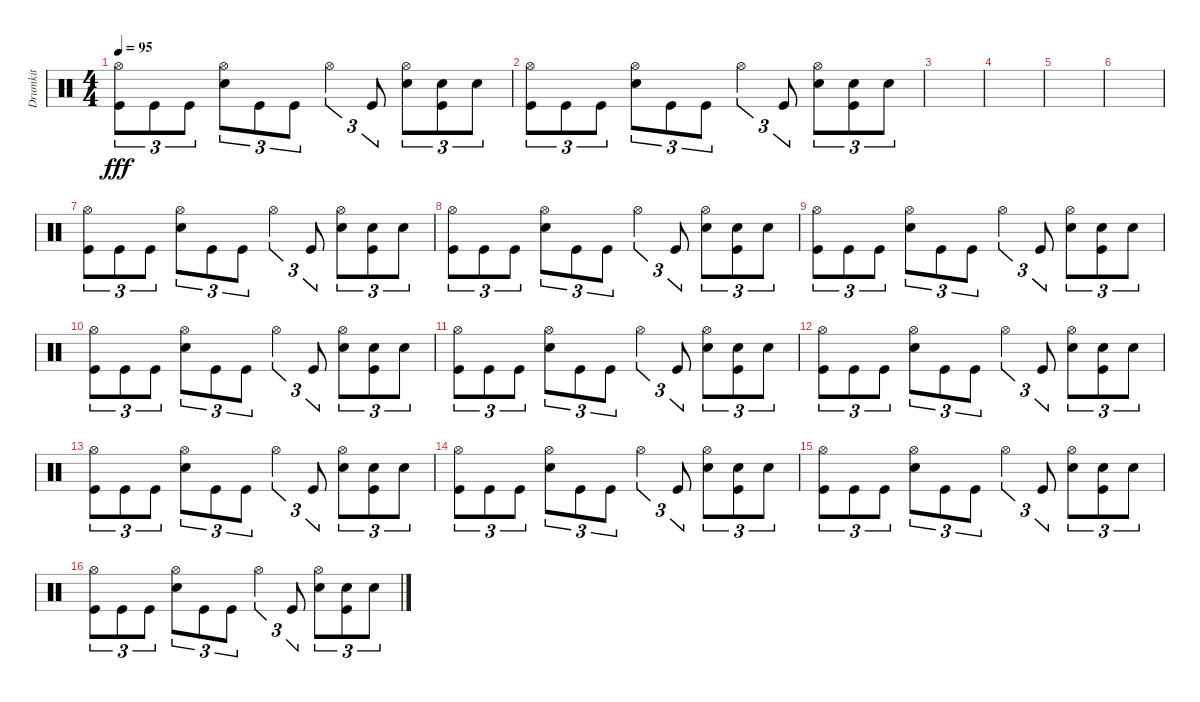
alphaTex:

\track ("Drumkit" "Drumkit") {instrument percussion}
\staff {score}
\articulation defaults
\ts (4 4)
\tempo 95
\clef neutral
\ks c
("Hi-Hat (open)" "Kick (hit)").8{tu (3 2) dy fff} "Kick (hit)".8{tu (3 2)} "Kick (hit)".8{tu (3 2)} ("Hi-Hat (open)" "Snare (hit) 2").8{tu (3 2)} "Kick (hit)".8{tu (3 2)} "Kick (hit)".8{tu (3 2)} "Hi-Hat (open)".4{tu (3 2)} "Kick (hit)".8{tu (3 2)} ("Hi-Hat (open)" "Snare (hit) 2").8{tu (3 2)} ("Snare (hit) 2" "Kick (hit)").8{tu (3 2)} "Snare (hit) 2".8{tu (3 2)} |
("Hi-Hat (open)" "Kick (hit)").8{tu (3 2)} "Kick (hit)".8{tu (3 2)} "Kick (hit)".8{tu (3 2)} ("Hi-Hat (open)" "Snare (hit) 2").8{tu (3 2)} "Kick (hit)".8{tu (3 2)} "Kick (hit)".8{tu (3 2)} "Hi-Hat (open)".4{tu (3 2)} "Kick (hit)".8{tu (3 2)} ("Hi-Hat (open)" "Snare (hit) 2").8{tu (3 2)} ("Snare (hit) 2" "Kick (hit)").8{tu (3 2)} "Snare (hit) 2".8{tu (3 2)} |
|
|
|
|
("Hi-Hat (open)" "Kick (hit)").8{tu (3 2)} "Kick (hit)".8{tu (3 2)} "Kick (hit)".8{tu (3 2)} ("Hi-Hat (open)" "Snare (hit) 2").8{tu (3 2)} "Kick (hit)".8{tu (3 2)} "Kick (hit)".8{tu (3 2)} "Hi-Hat (open)".4{tu (3 2)} "Kick (hit)".8{tu (3 2)} ("Hi-Hat (open)" "Snare (hit) 2").8{tu (3 2)} ("Snare (hit) 2" "Kick (hit)").8{tu (3 2)} "Snare (hit) 2".8{tu (3 2)} |
("Hi-Hat (open)" "Kick (hit)").8{tu (3 2)} "Kick (hit)".8{tu (3 2)} "Kick (hit)".8{tu (3 2)} ("Hi-Hat (open)" "Snare (hit) 2").8{tu (3 2)} "Kick (hit)".8{tu (3 2)} "Kick (hit)".8{tu (3 2)} "Hi-Hat (open)".4{tu (3 2)} "Kick (hit)".8{tu (3 2)} ("Hi-Hat (open)" "Snare (hit) 2").8{tu (3 2)} ("Snare (hit) 2" "Kick (hit)").8{tu (3 2)} "Snare (hit) 2".8{tu (3 2)} |
("Hi-Hat (open)" "Kick (hit)").8{tu (3 2)} "Kick (hit)".8{tu (3 2)} "Kick (hit)".8{tu (3 2)} ("Hi-Hat (open)" "Snare (hit) 2").8{tu (3 2)} "Kick (hit)".8{tu (3 2)} "Kick (hit)".8{tu (3 2)} "Hi-Hat (open)".4{tu (3 2)} "Kick (hit)".8{tu (3 2)} ("Hi-Hat (open)" "Snare (hit) 2").8{tu (3 2)} ("Snare (hit) 2" "Kick (hit)").8{tu (3 2)} "Snare (hit) 2".8{tu (3 2)} |
("Hi-Hat (open)" "Kick (hit)").8{tu (3 2)} "Kick (hit)".8{tu (3 2)} "Kick (hit)".8{tu (3 2)} ("Hi-Hat (open)" "Snare (hit) 2").8{tu (3 2)} "Kick (hit)".8{tu (3 2)} "Kick (hit)".8{tu (3 2)} "Hi-Hat (open)".4{tu (3 2)} "Kick (hit)".8{tu (3 2)} ("Hi-Hat (open)" "Snare (hit) 2").8{tu (3 2)} ("Snare (hit) 2" "Kick (hit)").8{tu (3 2)} "Snare (hit) 2".8{tu (3 2)} |
("Hi-Hat (open)" "Kick (hit)").8{tu (3 2)} "Kick (hit)".8{tu (3 2)} "Kick (hit)".8{tu (3 2)} ("Hi-Hat (open)" "Snare (hit) 2").8{tu (3 2)} "Kick (hit)".8{tu (3 2)} "Kick (hit)".8{tu (3 2)} "Hi-Hat (open)".4{tu (3 2)} "Kick (hit)".8{tu (3 2)} ("Hi-Hat (open)" "Snare (hit) 2").8{tu (3 2)} ("Snare (hit) 2" "Kick (hit)").8{tu (3 2)} "Snare (hit) 2".8{tu (3 2)} |
("Hi-Hat (open)" "Kick (hit)").8{tu (3 2)} "Kick (hit)".8{tu (3 2)} "Kick (hit)".8{tu (3 2)} ("Hi-Hat (open)" "Snare (hit) 2").8{tu (3 2)} "Kick (hit)".8{tu (3 2)} "Kick (hit)".8{tu (3 2)} "Hi-Hat (open)".4{tu (3 2)} "Kick (hit)".8{tu (3 2)} ("Hi-Hat (open)" "Snare (hit) 2").8{tu (3 2)} ("Snare (hit) 2" "Kick (hit)").8{tu (3 2)} "Snare (hit) 2".8{tu (3 2)} |
("Hi-Hat (open)" "Kick (hit)").8{tu (3 2)} "Kick (hit)".8{tu (3 2)} "Kick (hit)".8{tu (3 2)} ("Hi-Hat (open)" "Snare (hit) 2").8{tu (3 2)} "Kick (hit)".8{tu (3 2)} "Kick (hit)".8{tu (3 2)} "Hi-Hat (open)".4{tu (3 2)} "Kick (hit)".8{tu (3 2)} ("Hi-Hat (open)" "Snare (hit) 2").8{tu (3 2)} ("Snare (hit) 2" "Kick (hit)").8{tu (3 2)} "Snare (hit) 2".8{tu (3 2)} |
("Hi-Hat (open)" "Kick (hit)").8{tu (3 2)} "Kick (hit)".8{tu (3 2)} "Kick (hit)".8{tu (3 2)} ("Hi-Hat (open)" "Snare (hit) 2").8{tu (3 2)} "Kick (hit)".8{tu (3 2)} "Kick (hit)".8{tu (3 2)} "Hi-Hat (open)".4{tu (3 2)} "Kick (hit)".8{tu (3 2)} ("Hi-Hat (open)" "Snare (hit) 2").8{tu (3 2)} ("Snare (hit) 2" "Kick (hit)").8{tu (3 2)} "Snare (hit) 2".8{tu (3 2)} |
("Hi-Hat (open)" "Kick (hit)").8{tu (3 2)} "Kick (hit)".8{tu (3 2)} "Kick (hit)".8{tu (3 2)} ("Hi-Hat (open)" "Snare (hit) 2").8{tu (3 2)} "Kick (hit)".8{tu (3 2)} "Kick (hit)".8{tu (3 2)} "Hi-Hat (open)".4{tu (3 2)} "Kick (hit)".8{tu (3 2)} ("Hi-Hat (open)" "Snare (hit) 2").8{tu (3 2)} ("Snare (hit) 2" "Kick (hit)").8{tu (3 2)} "Snare (hit) 2".8{tu (3 2)} |
("Hi-Hat (open)" "Kick (hit)").8{tu (3 2)} "Kick (hit)".8{tu (3 2)} "Kick (hit)".8{tu (3 2)} ("Hi-Hat (open)" "Snare (hit) 2").8{tu (3 2)} "Kick (hit)".8{tu (3 2)} "Kick (hit)".8{tu (3 2)} "Hi-Hat (open)".4{tu (3 2)} "Kick (hit)".8{tu (3 2)} ("Hi-Hat (open)" "Snare (hit) 2").8{tu (3 2)} ("Snare (hit) 2" "Kick (hit)").8{tu (3 2)} "Snare (hit) 2".8{tu (3 2)}
